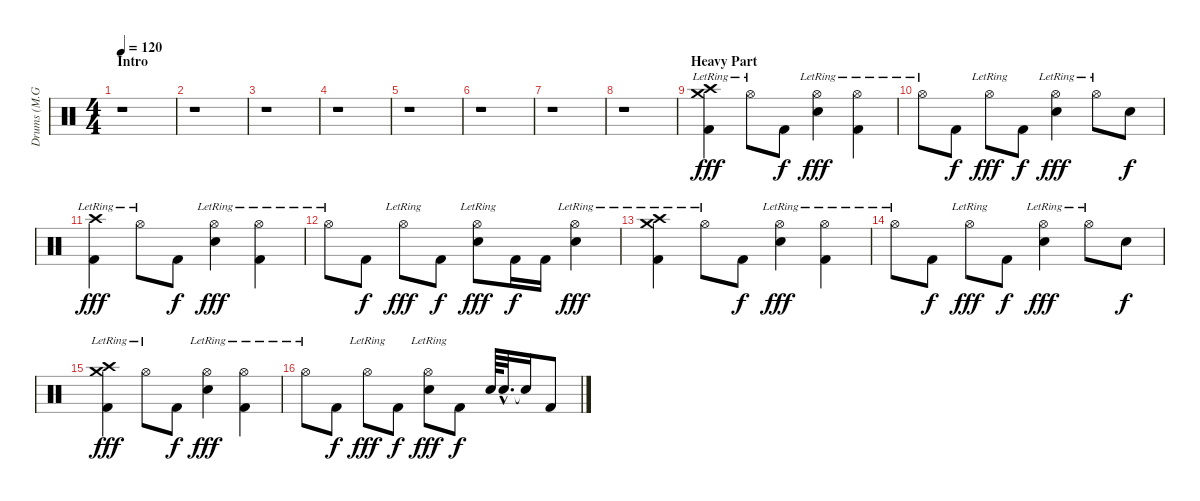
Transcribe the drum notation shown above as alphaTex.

\track ("Drums (M.Grosskopf)" "Drums (M.G") {instrument percussion}
\staff {score}
\articulation defaults
\ts (4 4)
\section ("" "Intro")
\tempo 120
\clef neutral
\ks c
r.1{dy fff} |
r.1 |
r.1 |
r.1 |
r.1 |
r.1 |
r.1 |
r.1 |
\section ("" "Heavy Part")
("Crash high (hit)"{lr} "Crash medium (hit)"{lr} "Kick (hit) 2").4 "Hi-Hat (open)"{lr}.8 "Kick (hit) 2".8{dy f} ("Hi-Hat (open)"{lr} "Electric Snare (hit)").4{dy fff} ("Hi-Hat (open)"{lr} "Kick (hit) 2").4 |
"Hi-Hat (open)"{lr}.8 "Kick (hit) 2".8{dy f} "Hi-Hat (open)"{lr}.8{dy fff} "Kick (hit) 2".8{dy f} ("Hi-Hat (open)"{lr} "Electric Snare (hit)").4{dy fff} "Hi-Hat (open)"{lr}.8 "Electric Snare (hit)".8{dy f} |
("Crash high (hit)"{lr} "Kick (hit) 2").4{dy fff} "Hi-Hat (open)"{lr}.8 "Kick (hit) 2".8{dy f} ("Hi-Hat (open)"{lr} "Electric Snare (hit)").4{dy fff} ("Hi-Hat (open)"{lr} "Kick (hit) 2").4 |
"Hi-Hat (open)"{lr}.8 "Kick (hit) 2".8{dy f} "Hi-Hat (open)"{lr}.8{dy fff} "Kick (hit) 2".8{dy f} ("Hi-Hat (open)"{lr} "Electric Snare (hit)").8{dy fff} "Kick (hit) 2".16{dy f} "Kick (hit) 2".16 ("Hi-Hat (open)"{lr} "Electric Snare (hit)").4{dy fff} |
("Crash high (hit)"{lr} "Crash medium (hit)"{lr} "Kick (hit) 2").4 "Hi-Hat (open)"{lr}.8 "Kick (hit) 2".8{dy f} ("Hi-Hat (open)"{lr} "Electric Snare (hit)").4{dy fff} ("Hi-Hat (open)"{lr} "Kick (hit) 2").4 |
"Hi-Hat (open)"{lr}.8 "Kick (hit) 2".8{dy f} "Hi-Hat (open)"{lr}.8{dy fff} "Kick (hit) 2".8{dy f} ("Hi-Hat (open)"{lr} "Electric Snare (hit)").4{dy fff} "Hi-Hat (open)"{lr}.8 "Electric Snare (hit)".8{dy f} |
("Crash high (hit)"{lr} "Crash medium (hit)"{lr} "Kick (hit) 2").4{dy fff} "Hi-Hat (open)"{lr}.8 "Kick (hit) 2".8{dy f} ("Hi-Hat (open)"{lr} "Electric Snare (hit)").4{dy fff} ("Hi-Hat (open)"{lr} "Kick (hit) 2").4 |
"Hi-Hat (open)"{lr}.8 "Kick (hit) 2".8{dy f} "Hi-Hat (open)"{lr}.8{dy fff} "Kick (hit) 2".8{dy f} ("Hi-Hat (open)"{lr} "Electric Snare (hit)").8{dy fff} "Kick (hit) 2".8{dy f} "Electric Snare (hit)".64 "Electric Snare (hit)"{hac}.32{d} "Snare (hit)"{t}.16 "Kick (hit) 2".8
